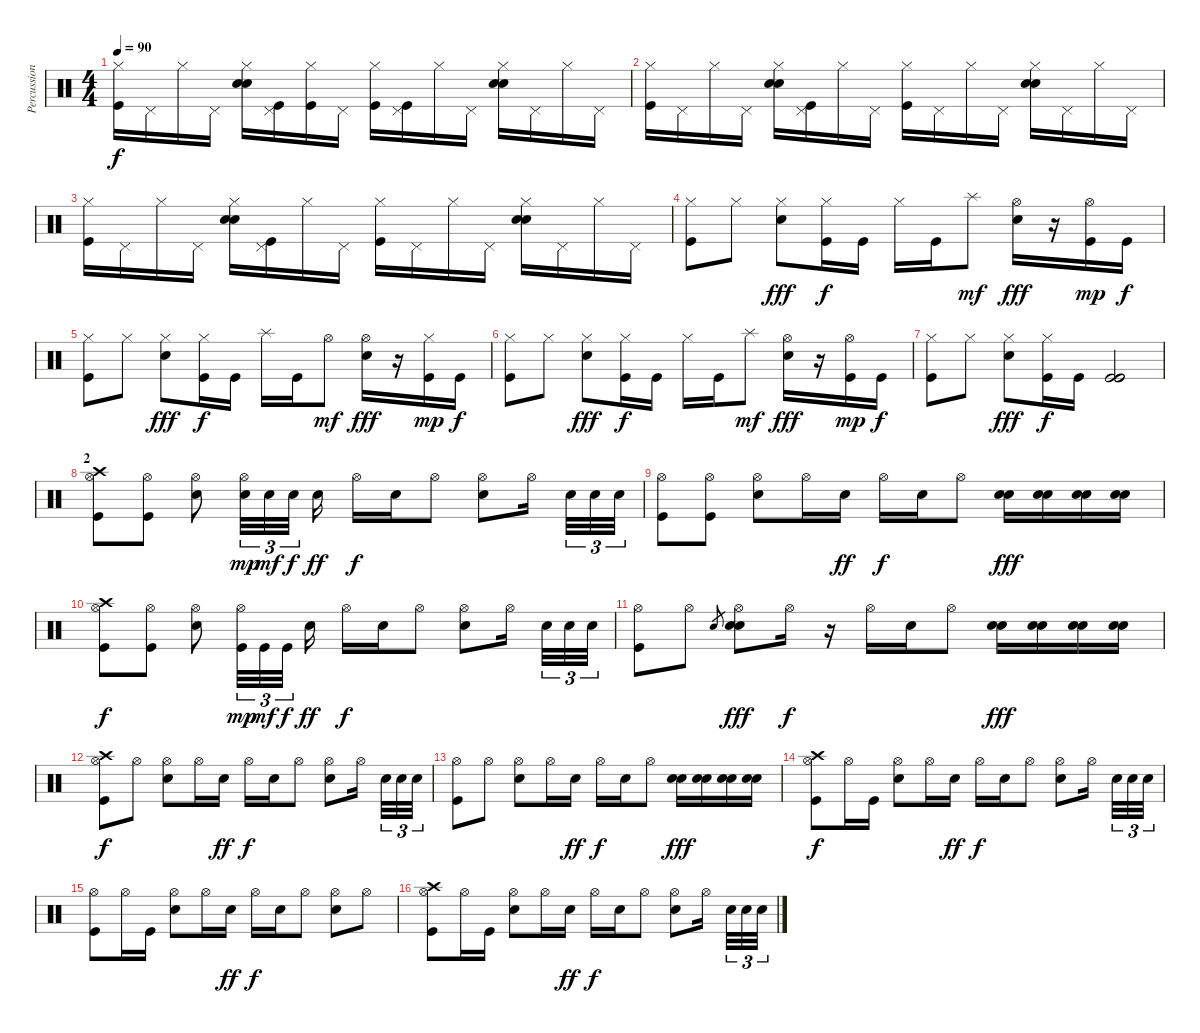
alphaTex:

\track ("Percussions" "Percussion") {instrument percussion}
\staff {score}
\articulation defaults
\ts (4 4)
\tempo 90
\clef neutral
\ks c
("Hi-Hat (closed)" "Kick (hit)").16{dy f} "Pedal Hi-Hat (hit)".16 "Hi-Hat (closed)".16 "Pedal Hi-Hat (hit)".16 ("Hi-Hat (closed)" "Electric Snare (hit)" "Snare (hit) 2").16 ("Pedal Hi-Hat (hit)" "Kick (hit)").16 ("Hi-Hat (closed)" "Kick (hit)").16 "Pedal Hi-Hat (hit)".16 ("Hi-Hat (closed)" "Kick (hit)").16 ("Pedal Hi-Hat (hit)" "Kick (hit)").16 "Hi-Hat (closed)".16 "Pedal Hi-Hat (hit)".16 ("Hi-Hat (closed)" "Electric Snare (hit)" "Snare (hit) 2").16 "Pedal Hi-Hat (hit)".16 "Hi-Hat (closed)".16 "Pedal Hi-Hat (hit)".16 |
("Hi-Hat (closed)" "Kick (hit)").16 "Pedal Hi-Hat (hit)".16 "Hi-Hat (closed)".16 "Pedal Hi-Hat (hit)".16 ("Hi-Hat (closed)" "Electric Snare (hit)" "Snare (hit) 2").16 ("Pedal Hi-Hat (hit)" "Kick (hit)").16 "Hi-Hat (closed)".16 "Pedal Hi-Hat (hit)".16 ("Hi-Hat (closed)" "Kick (hit)").16 "Pedal Hi-Hat (hit)".16 "Hi-Hat (closed)".16 "Pedal Hi-Hat (hit)".16 ("Hi-Hat (closed)" "Electric Snare (hit)" "Snare (hit) 2").16 "Pedal Hi-Hat (hit)".16 "Hi-Hat (closed)".16 "Pedal Hi-Hat (hit)".16 |
("Hi-Hat (closed)" "Kick (hit)").16 "Pedal Hi-Hat (hit)".16 "Hi-Hat (closed)".16 "Pedal Hi-Hat (hit)".16 ("Hi-Hat (closed)" "Electric Snare (hit)" "Snare (hit) 2").16 ("Pedal Hi-Hat (hit)" "Kick (hit)").16 "Hi-Hat (closed)".16 "Pedal Hi-Hat (hit)".16 ("Hi-Hat (closed)" "Kick (hit)").16 "Pedal Hi-Hat (hit)".16 "Hi-Hat (closed)".16 "Pedal Hi-Hat (hit)".16 ("Hi-Hat (closed)" "Electric Snare (hit)" "Snare (hit) 2").16 "Pedal Hi-Hat (hit)".16 "Hi-Hat (closed)".16 "Pedal Hi-Hat (hit)".16 |
("Hi-Hat (closed)" "Kick (hit)").8{volume 16} "Hi-Hat (closed)".8 ("Hi-Hat (closed)" "Snare (hit) 2").8{dy fff} ("Hi-Hat (closed)" "Kick (hit)").16{dy f} "Kick (hit)".16 "Hi-Hat (closed)".16 "Kick (hit)".16 "Splash (hit)".8{dy mf} ("Hi-Hat (open)" "Snare (hit) 2").16{dy fff} r.16 ("Hi-Hat (open)" "Kick (hit)").16{dy mp} "Kick (hit)".16{dy f} |
("Hi-Hat (closed)" "Kick (hit)").8 "Hi-Hat (closed)".8 ("Hi-Hat (closed)" "Snare (hit) 2").8{dy fff} ("Hi-Hat (closed)" "Kick (hit)").16{dy f} "Kick (hit)".16 "Splash (hit)".16 "Kick (hit)".16 "Hi-Hat (open)".8{dy mf} ("Hi-Hat (open)" "Snare (hit) 2").16{dy fff} r.16 ("Hi-Hat (closed)" "Kick (hit)").16{dy mp} "Kick (hit)".16{dy f} |
("Hi-Hat (closed)" "Kick (hit)").8 "Hi-Hat (closed)".8 ("Hi-Hat (closed)" "Snare (hit) 2").8{dy fff} ("Hi-Hat (closed)" "Kick (hit)").16{dy f} "Kick (hit)".16 "Hi-Hat (closed)".16 "Kick (hit)".16 "Splash (hit)".8{dy mf} ("Hi-Hat (open)" "Snare (hit) 2").16{dy fff} r.16 ("Hi-Hat (open)" "Kick (hit)").16{dy mp} "Kick (hit)".16{dy f} |
("Hi-Hat (closed)" "Kick (hit)").8 "Hi-Hat (closed)".8 ("Hi-Hat (closed)" "Snare (hit) 2").8{dy fff} ("Hi-Hat (closed)" "Kick (hit)").16{dy f} "Kick (hit)".16 ("Kick (hit)" "Kick (hit)" "Kick (hit)").2 |
\section ("" "2")
("Hi-Hat (open)" "Crash high (hit)" "Kick (hit)").8 ("Hi-Hat (open)" "Kick (hit)").8 ("Hi-Hat (open)" "Snare (hit) 2").8 ("Hi-Hat (open)" "Snare (hit) 2").32{tu (3 2) dy mp} "Snare (hit) 2".32{tu (3 2) dy mf} "Snare (hit) 2".32{tu (3 2) dy f} "Snare (hit) 2".16{dy ff} "Hi-Hat (open)".16{dy f} "Snare (hit) 2".16 "Hi-Hat (open)".8 ("Hi-Hat (open)" "Snare (hit) 2").8 "Hi-Hat (open)".16 "Snare (hit) 2".32{tu (3 2)} "Snare (hit) 2".32{tu (3 2)} "Snare (hit) 2".32{tu (3 2)} |
("Hi-Hat (open)" "Kick (hit)").8 ("Hi-Hat (open)" "Kick (hit)").8 ("Hi-Hat (open)" "Snare (hit) 2").8 "Hi-Hat (open)".16 "Snare (hit) 2".16{dy ff} "Hi-Hat (open)".16{dy f} "Snare (hit) 2".16 "Hi-Hat (open)".8 ("Snare (hit) 2" "Snare (hit) 2").16{dy fff} ("Snare (hit) 2" "Snare (hit) 2").16 ("Snare (hit) 2" "Snare (hit) 2").16 ("Snare (hit) 2" "Snare (hit) 2").16 |
("Hi-Hat (open)" "Crash high (hit)" "Kick (hit)").8{dy f} ("Hi-Hat (open)" "Kick (hit)").8 ("Hi-Hat (open)" "Snare (hit) 2").8 ("Hi-Hat (open)" "Kick (hit)").32{tu (3 2) dy mp} "Kick (hit)".32{tu (3 2) dy mf} "Kick (hit)".32{tu (3 2) dy f} "Snare (hit) 2".16{dy ff} "Hi-Hat (open)".16{dy f} "Snare (hit) 2".16 "Hi-Hat (open)".8 ("Hi-Hat (open)" "Snare (hit) 2").8 "Hi-Hat (open)".16 "Snare (hit) 2".32{tu (3 2)} "Snare (hit) 2".32{tu (3 2)} "Snare (hit) 2".32{tu (3 2)} |
("Hi-Hat (open)" "Kick (hit)").8 "Hi-Hat (open)".8 "Snare (hit) 2".8{gr} ("Hi-Hat (open)" "Electric Snare (hit)" "Snare (hit) 2").8{dy fff} "Hi-Hat (open)".16{dy f} r.16 "Hi-Hat (open)".16 "Snare (hit) 2".16 "Hi-Hat (open)".8 ("Snare (hit) 2" "Snare (hit) 2").16{dy fff} ("Snare (hit) 2" "Snare (hit) 2").16 ("Snare (hit) 2" "Snare (hit) 2").16 ("Snare (hit) 2" "Snare (hit) 2").16 |
("Hi-Hat (open)" "Crash high (hit)" "Kick (hit)").8{dy f} "Hi-Hat (open)".8 ("Hi-Hat (open)" "Snare (hit) 2").8 "Hi-Hat (open)".16 "Snare (hit) 2".16{dy ff} "Hi-Hat (open)".16{dy f} "Snare (hit) 2".16 "Hi-Hat (open)".8 ("Hi-Hat (open)" "Snare (hit) 2").8 "Hi-Hat (open)".16 "Snare (hit) 2".32{tu (3 2)} "Snare (hit) 2".32{tu (3 2)} "Snare (hit) 2".32{tu (3 2)} |
("Hi-Hat (open)" "Kick (hit)").8 "Hi-Hat (open)".8 ("Hi-Hat (open)" "Snare (hit) 2").8 "Hi-Hat (open)".16 "Snare (hit) 2".16{dy ff} "Hi-Hat (open)".16{dy f} "Snare (hit) 2".16 "Hi-Hat (open)".8 ("Snare (hit) 2" "Snare (hit) 2").16{dy fff} ("Snare (hit) 2" "Snare (hit) 2").16 ("Snare (hit) 2" "Snare (hit) 2").16 ("Snare (hit) 2" "Snare (hit) 2").16 |
("Hi-Hat (open)" "Crash high (hit)" "Kick (hit)").8{dy f} "Hi-Hat (open)".16 "Kick (hit)".16 ("Hi-Hat (open)" "Snare (hit) 2").8 "Hi-Hat (open)".16 "Snare (hit) 2".16{dy ff} "Hi-Hat (open)".16{dy f} "Snare (hit) 2".16 "Hi-Hat (open)".8 ("Hi-Hat (open)" "Snare (hit) 2").8 "Hi-Hat (open)".16 "Snare (hit) 2".32{tu (3 2)} "Snare (hit) 2".32{tu (3 2)} "Snare (hit) 2".32{tu (3 2)} |
("Hi-Hat (open)" "Kick (hit)").8 "Hi-Hat (open)".16 "Kick (hit)".16 ("Hi-Hat (open)" "Snare (hit) 2").8 "Hi-Hat (open)".16 "Snare (hit) 2".16{dy ff} "Hi-Hat (open)".16{dy f} "Snare (hit) 2".16 "Hi-Hat (open)".8 ("Hi-Hat (open)" "Snare (hit) 2").8 "Hi-Hat (open)".8 |
("Hi-Hat (open)" "Crash high (hit)" "Kick (hit)").8 "Hi-Hat (open)".16 "Kick (hit)".16 ("Hi-Hat (open)" "Snare (hit) 2").8 "Hi-Hat (open)".16 "Snare (hit) 2".16{dy ff} "Hi-Hat (open)".16{dy f} "Snare (hit) 2".16 "Hi-Hat (open)".8 ("Hi-Hat (open)" "Snare (hit) 2").8 "Hi-Hat (open)".16 "Snare (hit) 2".32{tu (3 2)} "Snare (hit) 2".32{tu (3 2)} "Snare (hit) 2".32{tu (3 2)}
